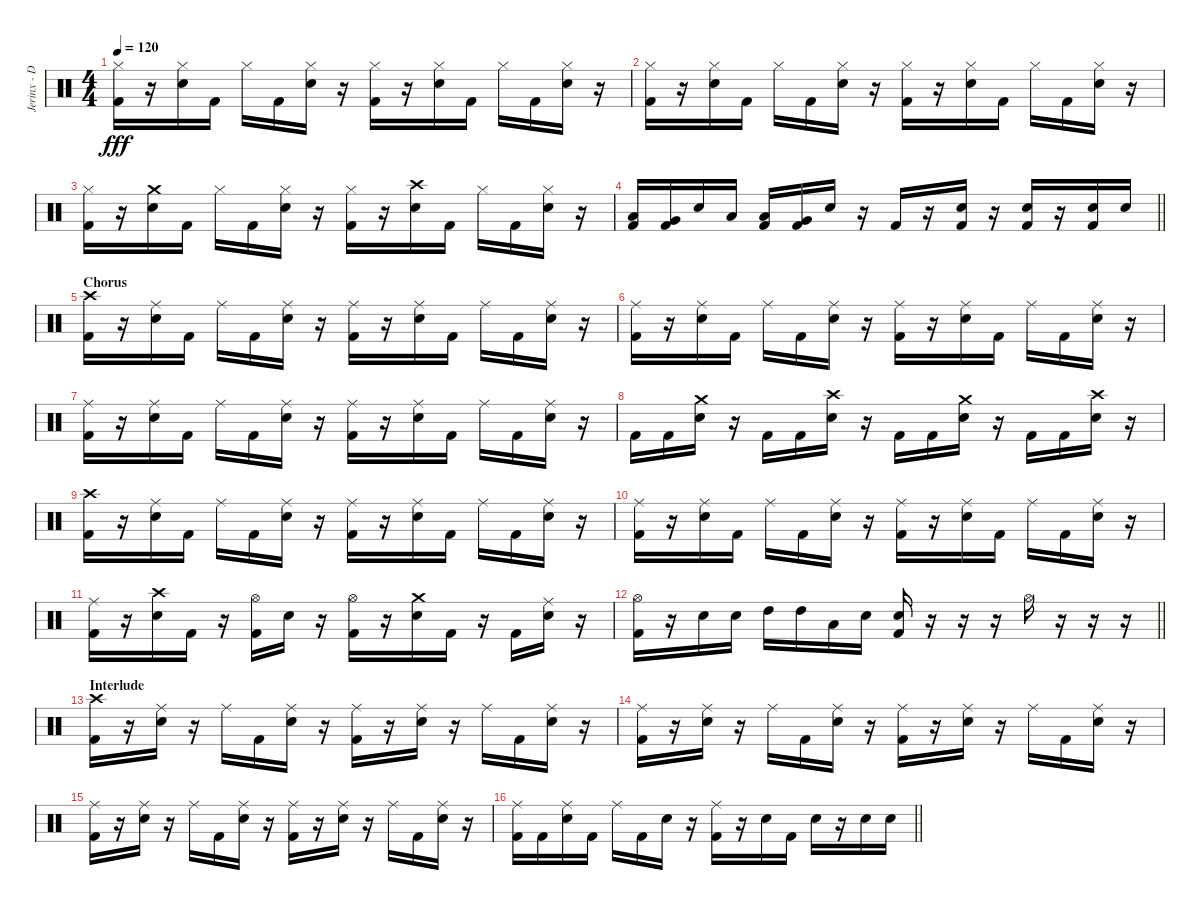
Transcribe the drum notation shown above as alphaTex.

\track ("Jerinx - Drum" "Jerinx - D") {instrument percussion}
\staff {score}
\articulation defaults
\ts (4 4)
\tempo 120
\clef neutral
\ks c
("Hi-Hat (closed)" "Kick (hit) 2").16{dy fff} r.16 ("Hi-Hat (closed)" "Snare (hit) 2").16 "Kick (hit) 2".16 "Hi-Hat (closed)".16 "Kick (hit) 2".16 ("Hi-Hat (closed)" "Snare (hit) 2").16 r.16 ("Hi-Hat (closed)" "Kick (hit) 2").16 r.16 ("Hi-Hat (closed)" "Snare (hit) 2").16 "Kick (hit) 2".16 "Hi-Hat (closed)".16 "Kick (hit) 2".16 ("Hi-Hat (closed)" "Snare (hit) 2").16 r.16 |
("Hi-Hat (closed)" "Kick (hit) 2").16 r.16 ("Hi-Hat (closed)" "Snare (hit) 2").16 "Kick (hit) 2".16 "Hi-Hat (closed)".16 "Kick (hit) 2".16 ("Hi-Hat (closed)" "Snare (hit) 2").16 r.16 ("Hi-Hat (closed)" "Kick (hit) 2").16 r.16 ("Hi-Hat (closed)" "Snare (hit) 2").16 "Kick (hit) 2".16 "Hi-Hat (closed)".16 "Kick (hit) 2".16 ("Hi-Hat (closed)" "Snare (hit) 2").16 r.16 |
("Hi-Hat (closed)" "Kick (hit) 2").16 r.16 ("Snare (hit) 2" "Crash medium (hit)").16 "Kick (hit) 2".16 "Hi-Hat (closed)".16 "Kick (hit) 2".16 ("Hi-Hat (closed)" "Snare (hit) 2").16 r.16 ("Hi-Hat (closed)" "Kick (hit) 2").16 r.16 ("Snare (hit) 2" "Crash high (hit)").16 "Kick (hit) 2".16 "Hi-Hat (closed)".16 "Kick (hit) 2".16 ("Hi-Hat (closed)" "Snare (hit) 2").16 r.16 |
\barLineRight lightlight
("Kick (hit) 2" "Low Tom (hit)").16 ("Kick (hit) 2" "Very Low Tom (hit)").16 "Snare (hit) 2".16 "Low Tom (hit)".16 ("Kick (hit) 2" "Low Tom (hit)").16 ("Kick (hit) 2" "Very Low Tom (hit)").16 "Snare (hit) 2".16 r.16 "Kick (hit) 2".16 r.16 ("Snare (hit) 2" "Kick (hit) 2").16 r.16 ("Snare (hit) 2" "Kick (hit) 2").16 r.16 ("Snare (hit) 2" "Kick (hit) 2").16 "Snare (hit) 2".16 |
\section ("" "Chorus")
("Kick (hit) 2" "Crash high (hit)").16 r.16 ("Snare (hit) 2" "Ride (middle)").16 "Kick (hit) 2".16 "Ride (middle)".16 "Kick (hit) 2".16 ("Snare (hit) 2" "Ride (middle)").16 r.16 ("Kick (hit) 2" "Ride (middle)").16 r.16 ("Snare (hit) 2" "Ride (middle)").16 "Kick (hit) 2".16 "Ride (middle)".16 "Kick (hit) 2".16 ("Snare (hit) 2" "Ride (middle)").16 r.16 |
("Kick (hit) 2" "Ride (middle)").16 r.16 ("Snare (hit) 2" "Ride (middle)").16 "Kick (hit) 2".16 "Ride (middle)".16 "Kick (hit) 2".16 ("Snare (hit) 2" "Ride (middle)").16 r.16 ("Kick (hit) 2" "Ride (middle)").16 r.16 ("Snare (hit) 2" "Ride (middle)").16 "Kick (hit) 2".16 "Ride (middle)".16 "Kick (hit) 2".16 ("Snare (hit) 2" "Ride (middle)").16 r.16 |
("Kick (hit) 2" "Ride (middle)").16 r.16 ("Snare (hit) 2" "Ride (middle)").16 "Kick (hit) 2".16 "Ride (middle)".16 "Kick (hit) 2".16 ("Snare (hit) 2" "Ride (middle)").16 r.16 ("Kick (hit) 2" "Ride (middle)").16 r.16 ("Snare (hit) 2" "Ride (middle)").16 "Kick (hit) 2".16 "Ride (middle)".16 "Kick (hit) 2".16 ("Snare (hit) 2" "Ride (middle)").16 r.16 |
"Kick (hit) 2".16 "Kick (hit) 2".16 ("Snare (hit) 2" "Crash medium (hit)").16 r.16 "Kick (hit) 2".16 "Kick (hit) 2".16 ("Snare (hit) 2" "Crash high (hit)").16 r.16 "Kick (hit) 2".16 "Kick (hit) 2".16 ("Snare (hit) 2" "Crash medium (hit)").16 r.16 "Kick (hit) 2".16 "Kick (hit) 2".16 ("Snare (hit) 2" "Crash high (hit)").16 r.16 |
("Kick (hit) 2" "Crash high (hit)").16 r.16 ("Snare (hit) 2" "Ride (middle)").16 "Kick (hit) 2".16 "Ride (middle)".16 "Kick (hit) 2".16 ("Snare (hit) 2" "Ride (middle)").16 r.16 ("Kick (hit) 2" "Ride (middle)").16 r.16 ("Snare (hit) 2" "Ride (middle)").16 "Kick (hit) 2".16 "Ride (middle)".16 "Kick (hit) 2".16 ("Snare (hit) 2" "Ride (middle)").16 r.16 |
("Kick (hit) 2" "Ride (middle)").16 r.16 ("Snare (hit) 2" "Ride (middle)").16 "Kick (hit) 2".16 "Ride (middle)".16 "Kick (hit) 2".16 ("Snare (hit) 2" "Ride (middle)").16 r.16 ("Kick (hit) 2" "Ride (middle)").16 r.16 ("Snare (hit) 2" "Ride (middle)").16 "Kick (hit) 2".16 "Ride (middle)".16 "Kick (hit) 2".16 ("Snare (hit) 2" "Ride (middle)").16 r.16 |
("Kick (hit) 2" "Ride (middle)").16 r.16 ("Snare (hit) 2" "Crash high (hit)").16 "Kick (hit) 2".16 r.16 ("Hi-Hat (open)" "Kick (hit) 2").16 "Snare (hit) 2".16 r.16 ("Hi-Hat (open)" "Kick (hit) 2").16 r.16 ("Snare (hit) 2" "Crash medium (hit)").16 "Kick (hit) 2".16 r.16 "Kick (hit) 2".16 ("Snare (hit) 2" "Ride (middle)").16 r.16 |
\barLineRight lightlight
("Hi-Hat (open)" "Kick (hit) 2").16 r.16 "Snare (hit) 2".16 "Snare (hit) 2".16 "High Tom (hit)".16 "High Tom (hit)".16 "Low Tom (hit)".16 "Snare (hit) 2".16 ("Snare (hit) 2" "Kick (hit) 2").16 r.16 r.16 r.16 "Hi-Hat (open)".16 r.16 r.16 r.16 |
\section ("" "Interlude")
("Kick (hit) 2" "Crash high (hit)").16 r.16 ("Snare (hit) 2" "Ride (middle)").16 r.16 "Ride (middle)".16 "Kick (hit) 2".16 ("Snare (hit) 2" "Ride (middle)").16 r.16 ("Kick (hit) 2" "Ride (middle)").16 r.16 ("Snare (hit) 2" "Ride (middle)").16 r.16 "Ride (middle)".16 "Kick (hit) 2".16 ("Snare (hit) 2" "Ride (middle)").16 r.16 |
("Kick (hit) 2" "Ride (middle)").16 r.16 ("Snare (hit) 2" "Ride (middle)").16 r.16 "Ride (middle)".16 "Kick (hit) 2".16 ("Snare (hit) 2" "Ride (middle)").16 r.16 ("Kick (hit) 2" "Ride (middle)").16 r.16 ("Snare (hit) 2" "Ride (middle)").16 r.16 "Ride (middle)".16 "Kick (hit) 2".16 ("Snare (hit) 2" "Ride (middle)").16 r.16 |
("Kick (hit) 2" "Ride (middle)").16 r.16 ("Snare (hit) 2" "Ride (middle)").16 r.16 "Ride (middle)".16 "Kick (hit) 2".16 ("Snare (hit) 2" "Ride (middle)").16 r.16 ("Kick (hit) 2" "Ride (middle)").16 r.16 ("Snare (hit) 2" "Ride (middle)").16 r.16 "Ride (middle)".16 "Kick (hit) 2".16 ("Snare (hit) 2" "Ride (middle)").16 r.16 |
\barLineRight lightlight
("Kick (hit) 2" "Ride (middle)").16 "Kick (hit) 2".16 ("Snare (hit) 2" "Ride (middle)").16 "Kick (hit) 2".16 "Ride (middle)".16 "Kick (hit) 2".16 "Snare (hit) 2".16 r.16 ("Kick (hit) 2" "Ride (middle)").16 r.16 "Snare (hit) 2".16 "Kick (hit) 2".16 "Snare (hit) 2".16 r.16 "Snare (hit) 2".16 "Snare (hit) 2".16
